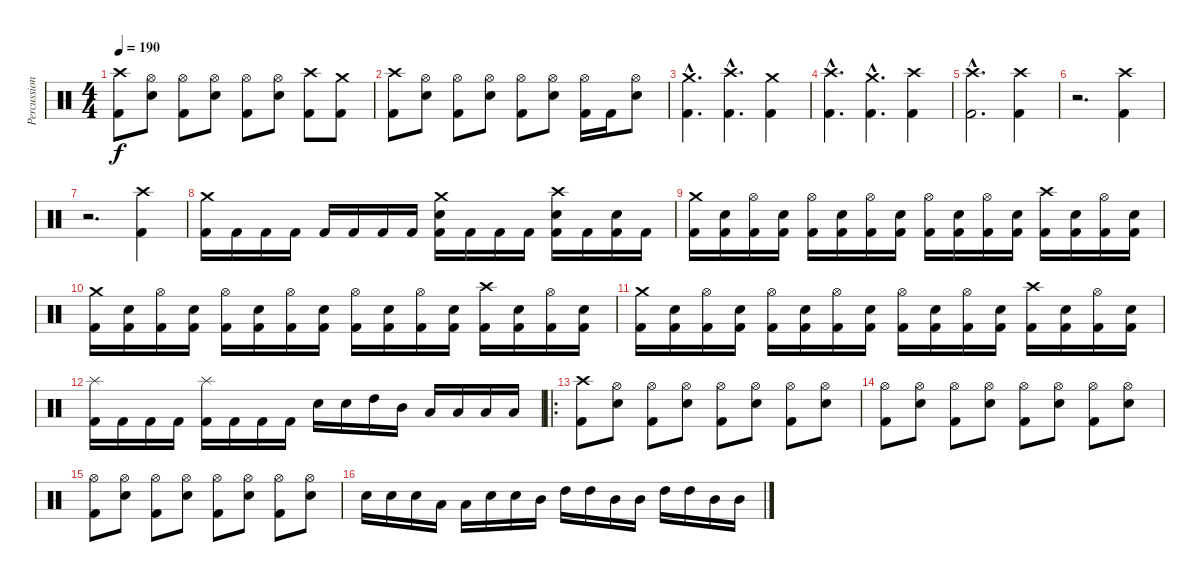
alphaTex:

\track ("Percussion" "Percussion") {instrument percussion}
\staff {score}
\articulation defaults
\ts (4 4)
\tempo 190
\clef neutral
\ks c
("Crash high (hit)" "Kick (hit) 2").8{dy f} ("Hi-Hat (open)" "Snare (hit) 2").8 ("Hi-Hat (open)" "Kick (hit) 2").8 ("Hi-Hat (open)" "Snare (hit) 2").8 ("Hi-Hat (open)" "Kick (hit) 2").8 ("Hi-Hat (open)" "Snare (hit) 2").8 ("Crash high (hit)" "Kick (hit) 2").8 ("Crash medium (hit)" "Kick (hit) 2").8 |
("Crash high (hit)" "Kick (hit) 2").8 ("Hi-Hat (open)" "Snare (hit) 2").8 ("Hi-Hat (open)" "Kick (hit) 2").8 ("Hi-Hat (open)" "Snare (hit) 2").8 ("Hi-Hat (open)" "Kick (hit) 2").8 ("Hi-Hat (open)" "Snare (hit) 2").8 ("Hi-Hat (open)" "Kick (hit) 2").16 "Kick (hit) 2".16 ("Hi-Hat (open)" "Snare (hit) 2").8 |
("Crash medium (hit)"{hac} "Kick (hit) 2"{hac}).4{d} ("Crash high (hit)"{hac} "Kick (hit) 2"{hac}).4{d} ("Crash medium (hit)" "Kick (hit) 2").4 |
("Crash high (hit)"{hac} "Kick (hit) 2"{hac}).4{d} ("Crash medium (hit)"{hac} "Kick (hit) 2"{hac}).4{d} ("Crash high (hit)" "Kick (hit) 2").4 |
("Crash high (hit)"{hac} "Kick (hit) 2"{hac}).2{d} ("Crash high (hit)" "Kick (hit) 2").4 |
r.2{d} ("Crash high (hit)" "Kick (hit) 2").4 |
r.2{d} ("Crash high (hit)" "Kick (hit) 2").4 |
("Crash medium (hit)" "Kick (hit) 2").16 "Kick (hit) 2".16 "Kick (hit) 2".16 "Kick (hit) 2".16 "Kick (hit) 2".16 "Kick (hit) 2".16 "Kick (hit) 2".16 "Kick (hit) 2".16 ("Crash medium (hit)" "Snare (hit) 2" "Kick (hit) 2").16 "Kick (hit) 2".16 "Kick (hit) 2".16 "Kick (hit) 2".16 ("Crash high (hit)" "Snare (hit) 2" "Kick (hit) 2").16 "Kick (hit) 2".16 ("Snare (hit) 2" "Kick (hit) 2").16 "Kick (hit) 2".16 |
("Crash medium (hit)" "Kick (hit) 2").16 ("Snare (hit) 2" "Kick (hit) 2").16 ("Hi-Hat (open)" "Kick (hit) 2").16 ("Snare (hit) 2" "Kick (hit) 2").16 ("Hi-Hat (open)" "Kick (hit) 2").16 ("Snare (hit) 2" "Kick (hit) 2").16 ("Hi-Hat (open)" "Kick (hit) 2").16 ("Snare (hit) 2" "Kick (hit) 2").16 ("Hi-Hat (open)" "Kick (hit) 2").16 ("Snare (hit) 2" "Kick (hit) 2").16 ("Hi-Hat (open)" "Kick (hit) 2").16 ("Snare (hit) 2" "Kick (hit) 2").16 ("Crash high (hit)" "Kick (hit) 2").16 ("Snare (hit) 2" "Kick (hit) 2").16 ("Hi-Hat (open)" "Kick (hit) 2").16 ("Snare (hit) 2" "Kick (hit) 2").16 |
("Crash medium (hit)" "Kick (hit) 2").16 ("Snare (hit) 2" "Kick (hit) 2").16 ("Hi-Hat (open)" "Kick (hit) 2").16 ("Snare (hit) 2" "Kick (hit) 2").16 ("Hi-Hat (open)" "Kick (hit) 2").16 ("Snare (hit) 2" "Kick (hit) 2").16 ("Hi-Hat (open)" "Kick (hit) 2").16 ("Snare (hit) 2" "Kick (hit) 2").16 ("Hi-Hat (open)" "Kick (hit) 2").16 ("Snare (hit) 2" "Kick (hit) 2").16 ("Hi-Hat (open)" "Kick (hit) 2").16 ("Snare (hit) 2" "Kick (hit) 2").16 ("Crash high (hit)" "Kick (hit) 2").16 ("Snare (hit) 2" "Kick (hit) 2").16 ("Hi-Hat (open)" "Kick (hit) 2").16 ("Snare (hit) 2" "Kick (hit) 2").16 |
("Crash medium (hit)" "Kick (hit) 2").16 ("Snare (hit) 2" "Kick (hit) 2").16 ("Hi-Hat (open)" "Kick (hit) 2").16 ("Snare (hit) 2" "Kick (hit) 2").16 ("Hi-Hat (open)" "Kick (hit) 2").16 ("Snare (hit) 2" "Kick (hit) 2").16 ("Hi-Hat (open)" "Kick (hit) 2").16 ("Snare (hit) 2" "Kick (hit) 2").16 ("Hi-Hat (open)" "Kick (hit) 2").16 ("Snare (hit) 2" "Kick (hit) 2").16 ("Hi-Hat (open)" "Kick (hit) 2").16 ("Snare (hit) 2" "Kick (hit) 2").16 ("Crash high (hit)" "Kick (hit) 2").16 ("Snare (hit) 2" "Kick (hit) 2").16 ("Hi-Hat (open)" "Kick (hit) 2").16 ("Snare (hit) 2" "Kick (hit) 2").16 |
("Splash (hit)" "Kick (hit) 2").16 "Kick (hit) 2".16 "Kick (hit) 2".16 "Kick (hit) 2".16 ("Splash (hit)" "Kick (hit) 2").16 "Kick (hit) 2".16 "Kick (hit) 2".16 "Kick (hit) 2".16 "Snare (hit) 2".16 "Snare (hit) 2".16 "High Tom (hit)".16 "Mid Tom (hit)".16 "Low Tom (hit)".16 "Low Tom (hit)".16 "Low Tom (hit)".16 "Low Tom (hit)".16 |
\ro
("Crash high (hit)" "Kick (hit) 2").8 ("Hi-Hat (open)" "Snare (hit) 2").8 ("Hi-Hat (open)" "Kick (hit) 2").8 ("Hi-Hat (open)" "Snare (hit) 2").8 ("Hi-Hat (open)" "Kick (hit) 2").8 ("Hi-Hat (open)" "Snare (hit) 2").8 ("Hi-Hat (open)" "Kick (hit) 2").8 ("Hi-Hat (open)" "Snare (hit) 2").8 |
("Hi-Hat (open)" "Kick (hit) 2").8 ("Hi-Hat (open)" "Snare (hit) 2").8 ("Hi-Hat (open)" "Kick (hit) 2").8 ("Hi-Hat (open)" "Snare (hit) 2").8 ("Hi-Hat (open)" "Kick (hit) 2").8 ("Hi-Hat (open)" "Snare (hit) 2").8 ("Hi-Hat (open)" "Kick (hit) 2").8 ("Hi-Hat (open)" "Snare (hit) 2").8 |
("Hi-Hat (open)" "Kick (hit) 2").8 ("Hi-Hat (open)" "Snare (hit) 2").8 ("Hi-Hat (open)" "Kick (hit) 2").8 ("Hi-Hat (open)" "Snare (hit) 2").8 ("Hi-Hat (open)" "Kick (hit) 2").8 ("Hi-Hat (open)" "Snare (hit) 2").8 ("Hi-Hat (open)" "Kick (hit) 2").8 ("Hi-Hat (open)" "Snare (hit) 2").8 |
"Snare (hit) 2".16 "Snare (hit) 2".16 "Snare (hit) 2".16 "Low Tom (hit)".16 "Low Tom (hit)".16 "Snare (hit) 2".16 "Snare (hit) 2".16 "Mid Tom (hit)".16 "High Tom (hit)".16 "High Tom (hit)".16 "Mid Tom (hit)".16 "Mid Tom (hit)".16 "High Tom (hit)".16 "High Tom (hit)".16 "Mid Tom (hit)".16 "Mid Tom (hit)".16
